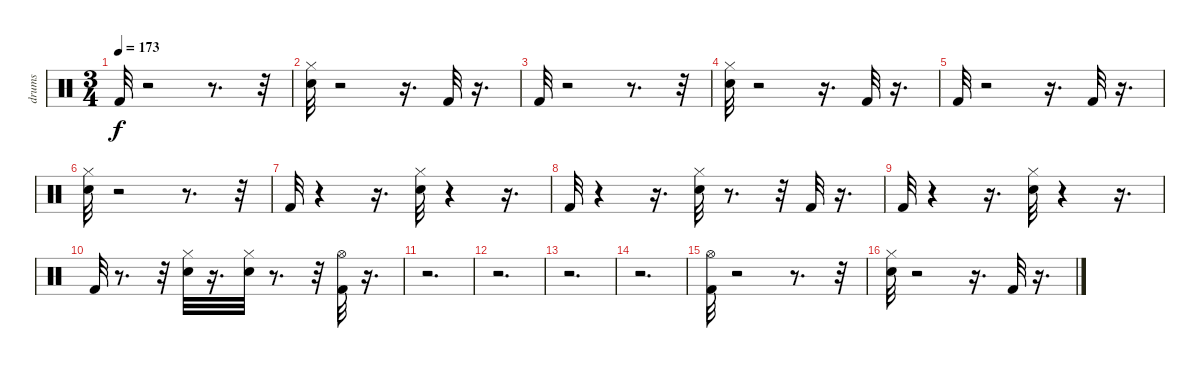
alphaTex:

\track ("drums" "drums") {instrument percussion}
\staff {score}
\articulation defaults
\ts (3 4)
\tempo 173
\clef neutral
\ks c "Kick (hit) 2".32{dy f}
r.2 r.8{d} r.32 |
("Snare (hit) 2" "Hi-Hat (closed)").32 r.2 r.16{d} "Kick (hit) 2".32 r.16{d} |
"Kick (hit) 2".32 r.2 r.8{d} r.32 |
("Hi-Hat (closed)" "Snare (hit) 2").32 r.2 r.16{d} "Kick (hit) 2".32 r.16{d} |
"Kick (hit) 2".32 r.2 r.16{d} "Kick (hit) 2".32 r.16{d} |
("Hi-Hat (closed)" "Snare (hit) 2").32 r.2 r.8{d} r.32 |
"Kick (hit) 2".32 r.4 r.16{d} ("Hi-Hat (closed)" "Snare (hit) 2").32 r.4 r.16{d} |
"Kick (hit) 2".32 r.4 r.16{d} ("Snare (hit) 2" "Hi-Hat (closed)").32 r.8{d} r.32 "Kick (hit) 2".32 r.16{d} |
"Kick (hit) 2".32 r.4 r.16{d} ("Hi-Hat (closed)" "Snare (hit) 2").32 r.4 r.16{d} |
"Kick (hit) 2".32 r.8{d} r.32 ("Hi-Hat (closed)" "Snare (hit) 2").32 r.16{d} ("Hi-Hat (closed)" "Snare (hit) 2").32 r.8{d} r.32 ("Hi-Hat (open)" "Kick (hit) 2").32 r.16{d} |
r.2{d} |
r.2{d} |
r.2{d} |
r.2{d} |
("Kick (hit) 2" "Hi-Hat (open)").32 r.2 r.8{d} r.32 |
("Hi-Hat (closed)" "Snare (hit) 2").32 r.2 r.16{d} "Kick (hit) 2".32 r.16{d}
